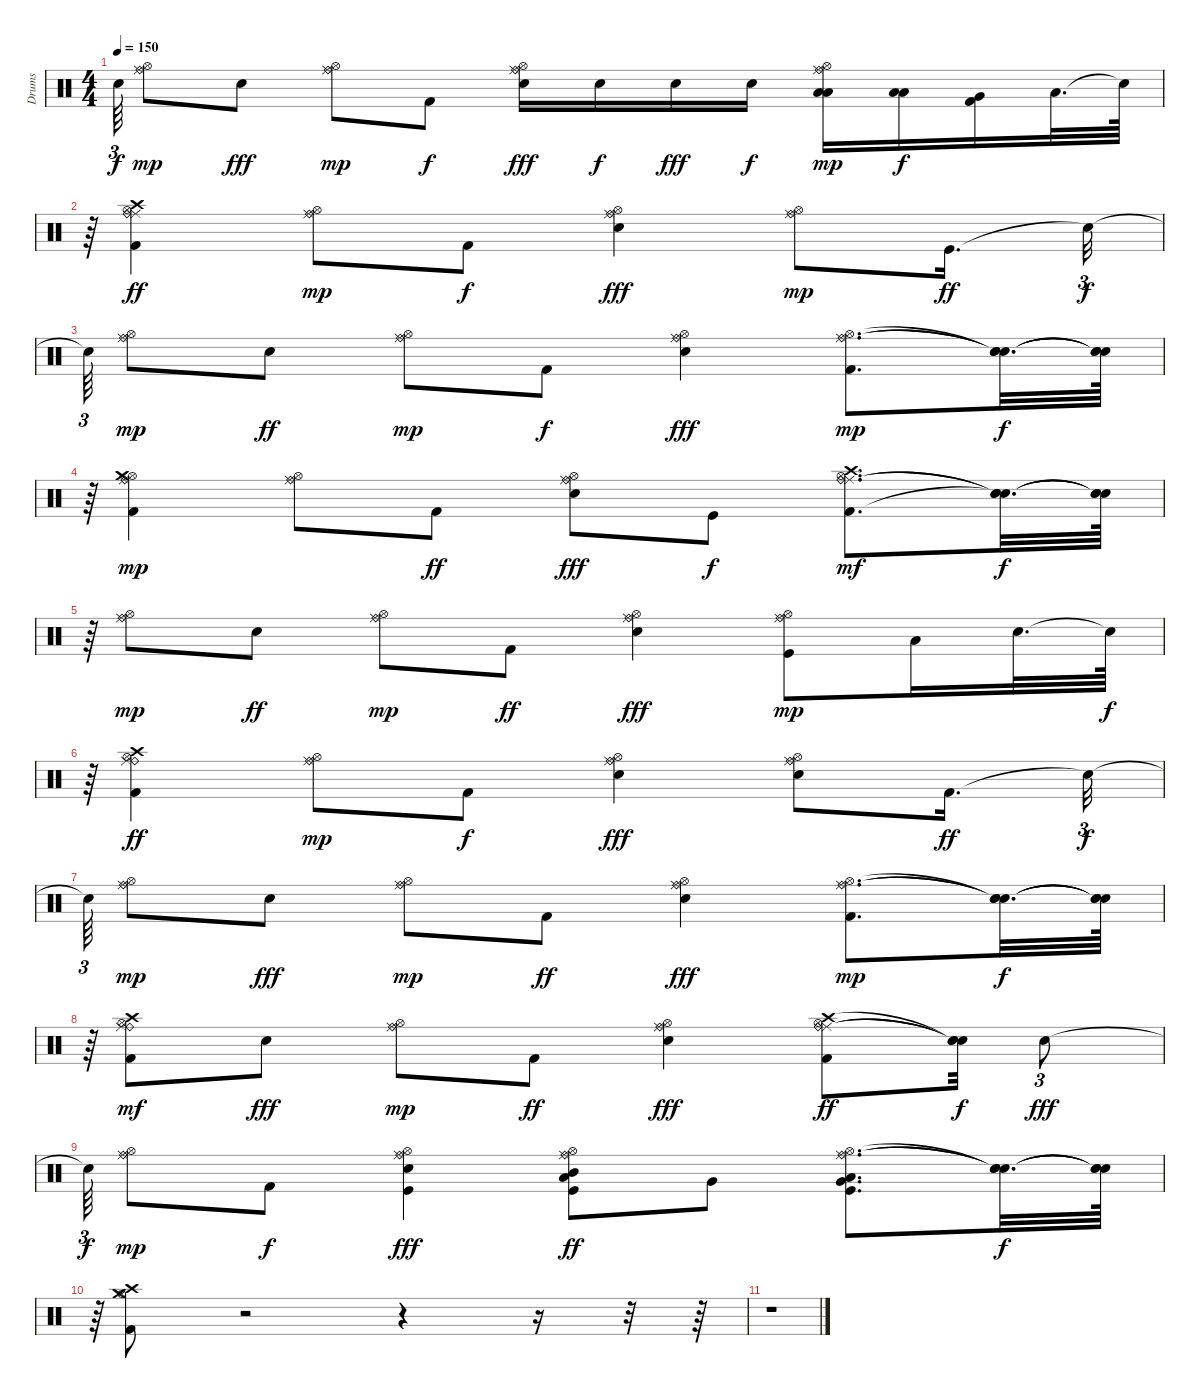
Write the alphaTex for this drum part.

\track ("Drums" "Drums") {instrument percussion}
\staff {score}
\articulation defaults
\ts (4 4)
\tempo 150
\clef neutral
\ks c "Snare (hit)"{t}.64{tu (3 2) dy f}
("Ride (bell)" "Ride (middle)" "Hi-Hat (open)").8{dy mp} "Electric Snare (hit)".8{dy fff} ("Ride (middle)" "Ride (bell)" "Hi-Hat (open)").8{dy mp} "Kick (hit) 2".8{dy f} ("Ride (middle)" "Ride (bell)" "Hi-Hat (open)" "Electric Snare (hit)").16{dy fff} "Electric Snare (hit)".16{dy f} "Electric Snare (hit)".16{dy fff} "Electric Snare (hit)".16{dy f} ("Ride (middle)" "Ride (bell)" "Hi-Hat (open)" "Low Tom (hit)" "Low Tom (hit)").16{dy mp} ("Low Tom (hit)" "Low Tom (hit)").16{dy f} ("Kick (hit) 2" "Very Low Tom (hit)").16 "Low Floor Tom (hit)".32{d} "Snare (hit)"{t}.64 |
r.64{tu (3 2)} ("Ride (middle)" "Ride (bell)" "Crash high (hit)" "Kick (hit) 2" "Hi-Hat (open)").4{dy ff} ("Ride (middle)" "Ride (bell)" "Hi-Hat (open)").8{dy mp} "Kick (hit) 2".8{dy f} ("Ride (middle)" "Ride (bell)" "Electric Snare (hit)" "Hi-Hat (open)").4{dy fff} ("Ride (middle)" "Ride (bell)" "Hi-Hat (open)").8{dy mp} "Kick (hit)".16{d dy ff} "Snare (hit)"{t}.32{tu (3 2) dy f} |
"Snare (hit)"{t}.64{tu (3 2)} ("Ride (bell)" "Ride (middle)" "Hi-Hat (open)").8{dy mp} "Electric Snare (hit)".8{dy ff} ("Ride (middle)" "Ride (bell)" "Hi-Hat (open)").8{dy mp} "Kick (hit) 2".8{dy f} ("Ride (middle)" "Ride (bell)" "Electric Snare (hit)" "Hi-Hat (open)").4{dy fff} ("Ride (middle)" "Ride (bell)" "Hi-Hat (open)" "Kick (hit) 2").8{d dy mp} ("Snare (hit)"{t} "Snare (hit)"{t} "Snare (hit)"{t}).32{d dy f} ("Snare (hit)"{t} "Snare (hit)"{t} "Snare (hit)"{t}).64 |
r.64{tu (3 2)} ("Ride (bell)" "Ride (middle)" "Kick (hit) 2" "Hi-Hat (open)" "Crash medium (hit)").4{dy mp} ("Ride (middle)" "Ride (bell)" "Hi-Hat (open)").8 "Kick (hit) 2".8{dy ff} ("Ride (middle)" "Ride (bell)" "Electric Snare (hit)" "Hi-Hat (open)").8{dy fff} "Kick (hit)".8{dy f} ("Ride (middle)" "Ride (bell)" "Kick (hit) 2" "Crash high (hit)" "Hi-Hat (open)").8{d dy mf} ("Snare (hit)"{t} "Snare (hit)"{t} "Snare (hit)"{t}).32{d dy f} ("Snare (hit)"{t} "Snare (hit)"{t} "Snare (hit)"{t}).64 |
r.64{tu (3 2)} ("Ride (bell)" "Ride (middle)" "Hi-Hat (open)").8{dy mp} "Electric Snare (hit)".8{dy ff} ("Ride (middle)" "Ride (bell)" "Hi-Hat (open)").8{dy mp} "Kick (hit) 2".8{dy ff} ("Ride (middle)" "Ride (bell)" "Electric Snare (hit)" "Hi-Hat (open)").4{dy fff} ("Ride (middle)" "Ride (bell)" "Hi-Hat (open)" "Kick (hit)").8{dy mp} "Low Tom (hit)".16 "Electric Snare (hit)".32{d} "Snare (hit)"{t}.64{dy f} |
r.64{tu (3 2)} ("Crash high (hit)" "Ride (bell)" "Ride (middle)" "Kick (hit) 2" "Hi-Hat (open)").4{dy ff} ("Ride (middle)" "Ride (bell)" "Hi-Hat (open)").8{dy mp} "Kick (hit) 2".8{dy f} ("Ride (middle)" "Ride (bell)" "Hi-Hat (open)" "Electric Snare (hit)").4{dy fff} ("Ride (middle)" "Ride (bell)" "Hi-Hat (open)" "Electric Snare (hit)").8 "Kick (hit) 2".16{d dy ff} "Snare (hit)"{t}.32{tu (3 2) dy f} |
"Snare (hit)"{t}.64{tu (3 2)} ("Ride (bell)" "Ride (middle)" "Hi-Hat (open)").8{dy mp} "Electric Snare (hit)".8{dy fff} ("Ride (middle)" "Ride (bell)" "Hi-Hat (open)").8{dy mp} "Kick (hit) 2".8{dy ff} ("Ride (middle)" "Ride (bell)" "Hi-Hat (open)" "Electric Snare (hit)").4{dy fff} ("Ride (middle)" "Ride (bell)" "Hi-Hat (open)" "Kick (hit) 2").8{d dy mp} ("Snare (hit)"{t} "Snare (hit)"{t} "Snare (hit)"{t}).32{d dy f} ("Snare (hit)"{t} "Snare (hit)"{t} "Snare (hit)"{t}).64 |
r.64{tu (3 2)} ("Ride (bell)" "Ride (middle)" "Kick (hit) 2" "Hi-Hat (open)" "Crash high (hit)").8{dy mf} "Electric Snare (hit)".8{dy fff} ("Ride (middle)" "Ride (bell)" "Hi-Hat (open)").8{dy mp} "Kick (hit) 2".8{dy ff} ("Ride (middle)" "Ride (bell)" "Hi-Hat (open)" "Electric Snare (hit)").4{dy fff} ("Ride (middle)" "Ride (bell)" "Crash high (hit)" "Hi-Hat (open)" "Kick (hit) 2").8{dy ff} ("Snare (hit)"{t} "Snare (hit)"{t} "Snare (hit)"{t}).32{dy f} "Electric Snare (hit)".8{tu (3 2) dy fff} |
"Snare (hit)"{t}.64{tu (3 2) dy f} ("Ride (bell)" "Ride (middle)" "Hi-Hat (open)").8{dy mp} "Kick (hit) 2".8{dy f} ("Ride (middle)" "Ride (bell)" "Hi-Hat (open)" "Electric Snare (hit)" "Kick (hit)").4{dy fff} ("Ride (middle)" "Ride (bell)" "Hi-Hat (open)" "Low Tom (hit)" "Mid Tom (hit)" "Kick (hit)").8{dy ff} "Very Low Tom (hit)".8 ("Ride (middle)" "Ride (bell)" "Hi-Hat (open)" "Very Low Tom (hit)" "Low Floor Tom (hit)" "Kick (hit)").8{d} ("Snare (hit)"{t} "Snare (hit)"{t} "Snare (hit)"{t}).32{d dy f} ("Snare (hit)"{t} "Snare (hit)"{t} "Snare (hit)"{t}).64 |
r.64{tu (3 2)} ("Kick (hit) 2" "Hi-Hat (open)" "Crash high (hit)" "Crash medium (hit)").8 r.2 r.4 r.16 r.32 r.64 |
r.1
